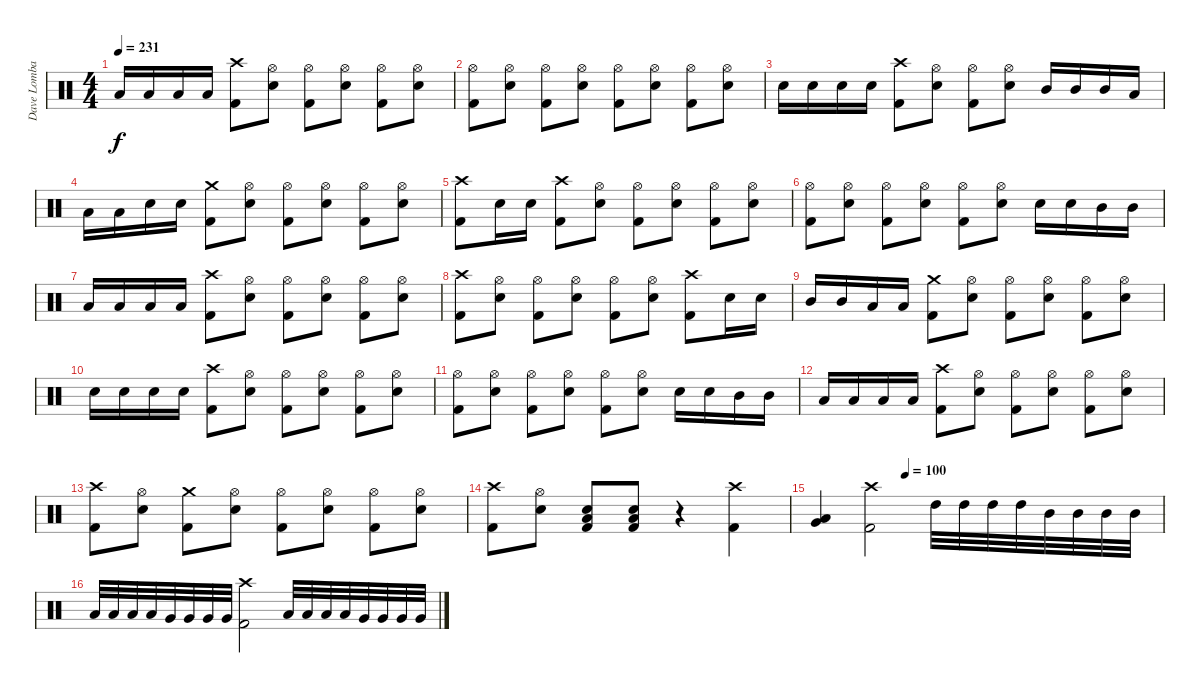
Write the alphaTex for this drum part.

\track ("Dave Lombardo" "Dave Lomba") {instrument percussion}
\staff {score}
\articulation defaults
\ts (4 4)
\tempo 231
\clef neutral
\ks c "Low Tom (hit)".16{dy f} "Low Tom (hit)".16 "Low Tom (hit)".16 "Low Tom (hit)".16
("Crash high (hit)" "Kick (hit) 2").8 ("Hi-Hat (open)" "Electric Snare (hit)").8 ("Hi-Hat (open)" "Kick (hit) 2").8 ("Hi-Hat (open)" "Electric Snare (hit)").8 ("Hi-Hat (open)" "Kick (hit) 2").8 ("Hi-Hat (open)" "Electric Snare (hit)").8 |
("Hi-Hat (open)" "Kick (hit) 2").8 ("Hi-Hat (open)" "Electric Snare (hit)").8 ("Hi-Hat (open)" "Kick (hit) 2").8 ("Hi-Hat (open)" "Electric Snare (hit)").8 ("Hi-Hat (open)" "Kick (hit) 2").8 ("Hi-Hat (open)" "Electric Snare (hit)").8 ("Hi-Hat (open)" "Kick (hit) 2").8 ("Hi-Hat (open)" "Electric Snare (hit)").8 |
"Electric Snare (hit)".16 "Electric Snare (hit)".16 "Electric Snare (hit)".16 "Electric Snare (hit)".16 ("Crash high (hit)" "Kick (hit) 2").8 ("Hi-Hat (open)" "Electric Snare (hit)").8 ("Hi-Hat (open)" "Kick (hit) 2").8 ("Hi-Hat (open)" "Electric Snare (hit)").8 "Mid Tom (hit)".16 "Mid Tom (hit)".16 "Mid Tom (hit)".16 "Low Tom (hit)".16 |
"Low Tom (hit)".16 "Low Tom (hit)".16 "Electric Snare (hit)".16 "Electric Snare (hit)".16 ("Crash medium (hit)" "Kick (hit) 2").8 ("Hi-Hat (open)" "Electric Snare (hit)").8 ("Hi-Hat (open)" "Kick (hit) 2").8 ("Hi-Hat (open)" "Electric Snare (hit)").8 ("Hi-Hat (open)" "Kick (hit) 2").8 ("Hi-Hat (open)" "Electric Snare (hit)").8 |
("Crash high (hit)" "Kick (hit) 2").8 "Electric Snare (hit)".16 "Electric Snare (hit)".16 ("Crash high (hit)" "Kick (hit) 2").8 ("Hi-Hat (open)" "Electric Snare (hit)").8 ("Hi-Hat (open)" "Kick (hit) 2").8 ("Hi-Hat (open)" "Electric Snare (hit)").8 ("Hi-Hat (open)" "Kick (hit) 2").8 ("Hi-Hat (open)" "Electric Snare (hit)").8 |
("Hi-Hat (open)" "Kick (hit) 2").8 ("Hi-Hat (open)" "Electric Snare (hit)").8 ("Hi-Hat (open)" "Kick (hit) 2").8 ("Hi-Hat (open)" "Electric Snare (hit)").8 ("Hi-Hat (open)" "Kick (hit) 2").8 ("Hi-Hat (open)" "Electric Snare (hit)").8 "Electric Snare (hit)".16 "Electric Snare (hit)".16 "Mid Tom (hit)".16 "Mid Tom (hit)".16 |
"Low Tom (hit)".16 "Low Tom (hit)".16 "Low Tom (hit)".16 "Low Tom (hit)".16 ("Crash high (hit)" "Kick (hit) 2").8 ("Hi-Hat (open)" "Electric Snare (hit)").8 ("Hi-Hat (open)" "Kick (hit) 2").8 ("Hi-Hat (open)" "Electric Snare (hit)").8 ("Hi-Hat (open)" "Kick (hit) 2").8 ("Hi-Hat (open)" "Electric Snare (hit)").8 |
("Crash high (hit)" "Kick (hit) 2").8 ("Hi-Hat (open)" "Electric Snare (hit)").8 ("Hi-Hat (open)" "Kick (hit) 2").8 ("Hi-Hat (open)" "Electric Snare (hit)").8 ("Hi-Hat (open)" "Kick (hit) 2").8 ("Hi-Hat (open)" "Electric Snare (hit)").8 ("Crash high (hit)" "Kick (hit) 2").8 "Electric Snare (hit)".16 "Electric Snare (hit)".16 |
"Mid Tom (hit)".16 "Mid Tom (hit)".16 "Low Tom (hit)".16 "Low Tom (hit)".16 ("Crash medium (hit)" "Kick (hit) 2").8 ("Hi-Hat (open)" "Electric Snare (hit)").8 ("Hi-Hat (open)" "Kick (hit) 2").8 ("Hi-Hat (open)" "Electric Snare (hit)").8 ("Hi-Hat (open)" "Kick (hit) 2").8 ("Hi-Hat (open)" "Electric Snare (hit)").8 |
"Electric Snare (hit)".16 "Electric Snare (hit)".16 "Electric Snare (hit)".16 "Electric Snare (hit)".16 ("Crash high (hit)" "Kick (hit) 2").8 ("Hi-Hat (open)" "Electric Snare (hit)").8 ("Hi-Hat (open)" "Kick (hit) 2").8 ("Hi-Hat (open)" "Electric Snare (hit)").8 ("Hi-Hat (open)" "Kick (hit) 2").8 ("Hi-Hat (open)" "Electric Snare (hit)").8 |
("Hi-Hat (open)" "Kick (hit) 2").8 ("Hi-Hat (open)" "Electric Snare (hit)").8 ("Hi-Hat (open)" "Kick (hit) 2").8 ("Hi-Hat (open)" "Electric Snare (hit)").8 ("Hi-Hat (open)" "Kick (hit) 2").8 ("Hi-Hat (open)" "Electric Snare (hit)").8 "Electric Snare (hit)".16 "Electric Snare (hit)".16 "Mid Tom (hit)".16 "Mid Tom (hit)".16 |
"Low Tom (hit)".16 "Low Tom (hit)".16 "Low Tom (hit)".16 "Low Tom (hit)".16 ("Crash high (hit)" "Kick (hit) 2").8 ("Hi-Hat (open)" "Electric Snare (hit)").8 ("Hi-Hat (open)" "Kick (hit) 2").8 ("Hi-Hat (open)" "Electric Snare (hit)").8 ("Hi-Hat (open)" "Kick (hit) 2").8 ("Hi-Hat (open)" "Electric Snare (hit)").8 |
("Crash high (hit)" "Kick (hit) 2").8 ("Hi-Hat (open)" "Electric Snare (hit)").8 ("Crash medium (hit)" "Kick (hit) 2").8 ("Hi-Hat (open)" "Electric Snare (hit)").8 ("Hi-Hat (open)" "Kick (hit) 2").8 ("Hi-Hat (open)" "Electric Snare (hit)").8 ("Hi-Hat (open)" "Kick (hit) 2").8 ("Hi-Hat (open)" "Electric Snare (hit)").8 |
("Crash high (hit)" "Kick (hit) 2").8 ("Hi-Hat (open)" "Electric Snare (hit)").8 ("Kick (hit) 2" "Low Floor Tom (hit)" "Electric Snare (hit)").8 ("Kick (hit) 2" "Low Floor Tom (hit)" "Electric Snare (hit)").8 r.4 ("Crash high (hit)" "Kick (hit) 2").4 |
\tempo (100 0.25)
("Very Low Tom (hit)" "Low Floor Tom (hit)").4 ("Crash high (hit)" "Kick (hit) 2").2 "High Tom (hit)".32 "High Tom (hit)".32 "High Tom (hit)".32 "High Tom (hit)".32 "Mid Tom (hit)".32 "Mid Tom (hit)".32 "Mid Tom (hit)".32 "Mid Tom (hit)".32 |
"Low Tom (hit)".32 "Low Tom (hit)".32 "Low Tom (hit)".32 "Low Tom (hit)".32 "Very Low Tom (hit)".32 "Very Low Tom (hit)".32 "Very Low Tom (hit)".32 "Very Low Tom (hit)".32 ("Crash high (hit)" "Kick (hit) 2").2 "Low Tom (hit)".32 "Low Tom (hit)".32 "Low Tom (hit)".32 "Low Tom (hit)".32 "Very Low Tom (hit)".32 "Very Low Tom (hit)".32 "Very Low Tom (hit)".32 "Very Low Tom (hit)".32
